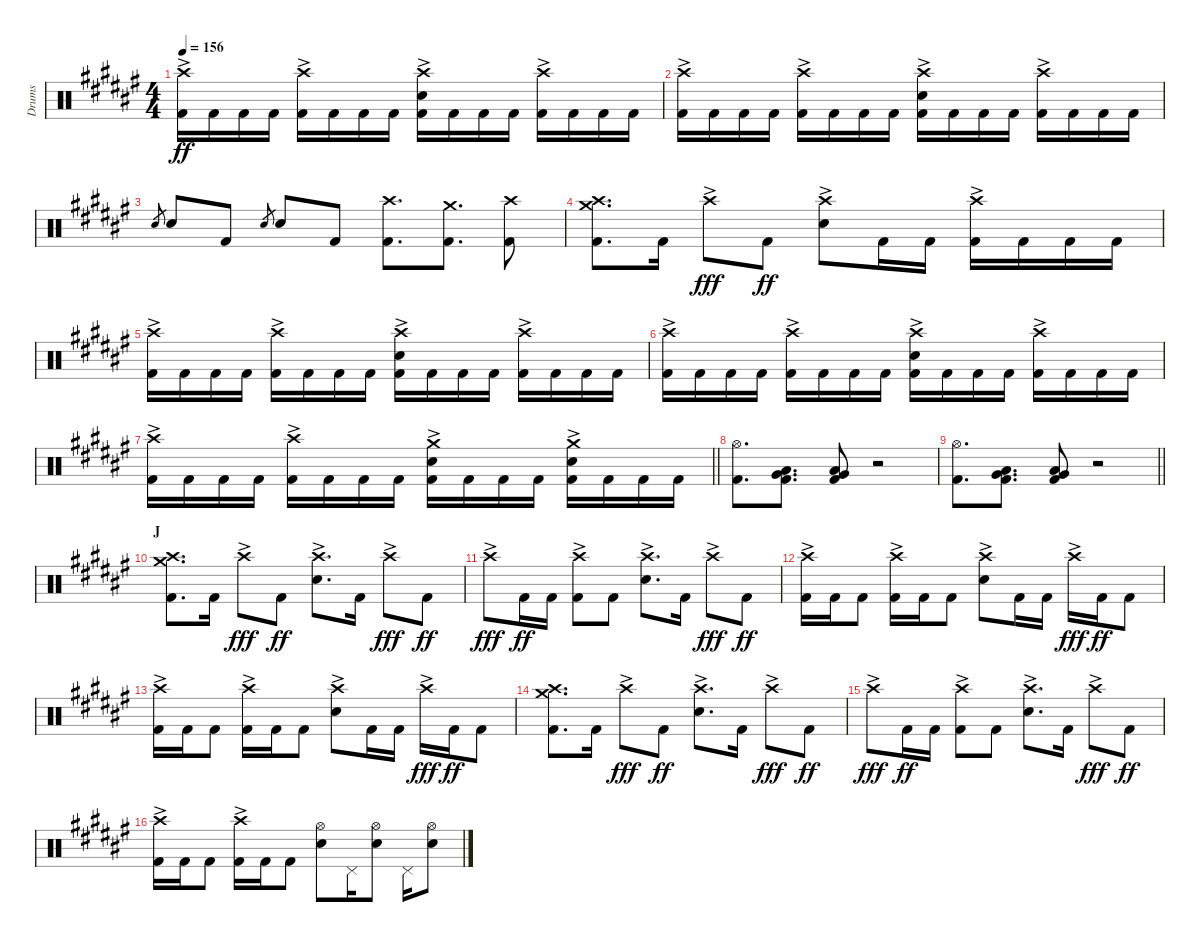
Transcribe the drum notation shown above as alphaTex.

\track ("Drums" "Drums") {instrument percussion}
\staff {score}
\articulation defaults
\ts (4 4)
\tempo 156
\clef neutral
\ks f#
("Crash high (hit)"{ac} "Kick (hit) 2").16{dy ff} "Kick (hit) 2".16 "Kick (hit) 2".16 "Kick (hit) 2".16 ("Crash high (hit)"{ac} "Kick (hit) 2").16 "Kick (hit) 2".16 "Kick (hit) 2".16 "Kick (hit) 2".16 ("Crash high (hit)"{ac} "Electric Snare (hit)" "Kick (hit) 2").16 "Kick (hit) 2".16 "Kick (hit) 2".16 "Kick (hit) 2".16 ("Crash high (hit)"{ac} "Kick (hit) 2").16 "Kick (hit) 2".16 "Kick (hit) 2".16 "Kick (hit) 2".16 |
("Crash high (hit)"{ac} "Kick (hit) 2").16 "Kick (hit) 2".16 "Kick (hit) 2".16 "Kick (hit) 2".16 ("Crash high (hit)"{ac} "Kick (hit) 2").16 "Kick (hit) 2".16 "Kick (hit) 2".16 "Kick (hit) 2".16 ("Crash high (hit)"{ac} "Electric Snare (hit)" "Kick (hit) 2").16 "Kick (hit) 2".16 "Kick (hit) 2".16 "Kick (hit) 2".16 ("Crash high (hit)"{ac} "Kick (hit) 2").16 "Kick (hit) 2".16 "Kick (hit) 2".16 "Kick (hit) 2".16 |
"Electric Snare (hit)".8{gr} "Electric Snare (hit)".8 "Kick (hit) 2".8 "Electric Snare (hit)".8{gr} "Electric Snare (hit)".8 "Kick (hit) 2".8 ("Crash high (hit)" "Kick (hit) 2").8{d} ("Crash medium (hit)" "Kick (hit) 2").8{d} ("Crash high (hit)" "Kick (hit) 2").8 |
("Crash medium (hit)" "Crash high (hit)" "Kick (hit) 2").8{d} "Kick (hit) 2".16 "Crash high (hit)"{ac}.8{dy fff} "Kick (hit) 2".8{dy ff} ("Crash high (hit)"{ac} "Electric Snare (hit)").8 "Kick (hit) 2".16 "Kick (hit) 2".16 ("Crash high (hit)"{ac} "Kick (hit) 2").16 "Kick (hit) 2".16 "Kick (hit) 2".16 "Kick (hit) 2".16 |
("Crash high (hit)"{ac} "Kick (hit) 2").16 "Kick (hit) 2".16 "Kick (hit) 2".16 "Kick (hit) 2".16 ("Crash high (hit)"{ac} "Kick (hit) 2").16 "Kick (hit) 2".16 "Kick (hit) 2".16 "Kick (hit) 2".16 ("Crash high (hit)"{ac} "Electric Snare (hit)" "Kick (hit) 2").16 "Kick (hit) 2".16 "Kick (hit) 2".16 "Kick (hit) 2".16 ("Crash high (hit)"{ac} "Kick (hit) 2").16 "Kick (hit) 2".16 "Kick (hit) 2".16 "Kick (hit) 2".16 |
("Crash high (hit)"{ac} "Kick (hit) 2").16 "Kick (hit) 2".16 "Kick (hit) 2".16 "Kick (hit) 2".16 ("Crash high (hit)"{ac} "Kick (hit) 2").16 "Kick (hit) 2".16 "Kick (hit) 2".16 "Kick (hit) 2".16 ("Crash high (hit)"{ac} "Electric Snare (hit)" "Kick (hit) 2").16 "Kick (hit) 2".16 "Kick (hit) 2".16 "Kick (hit) 2".16 ("Crash high (hit)"{ac} "Kick (hit) 2").16 "Kick (hit) 2".16 "Kick (hit) 2".16 "Kick (hit) 2".16 |
\barLineRight lightlight
("Crash high (hit)"{ac} "Kick (hit) 2").16 "Kick (hit) 2".16 "Kick (hit) 2".16 "Kick (hit) 2".16 ("Crash high (hit)"{ac} "Kick (hit) 2").16 "Kick (hit) 2".16 "Kick (hit) 2".16 "Kick (hit) 2".16 ("Crash medium (hit)"{ac} "Electric Snare (hit)" "Kick (hit) 2").16 "Kick (hit) 2".16 "Kick (hit) 2".16 "Kick (hit) 2".16 ("Crash medium (hit)"{ac} "Electric Snare (hit)" "Kick (hit) 2").16 "Kick (hit) 2".16 "Kick (hit) 2".16 "Kick (hit) 2".16 |
\section ("" "")
("Hi-Hat (open)" "Kick (hit) 2").8{d} ("Low Tom (hit)" "Very Low Tom (hit)" "Kick (hit) 2").8{d} ("Very Low Tom (hit)" "Low Floor Tom (hit)" "Kick (hit) 2").8 r.2 |
\barLineRight lightlight
("Hi-Hat (open)" "Kick (hit) 2").8{d} ("Low Tom (hit)" "Very Low Tom (hit)" "Kick (hit) 2").8{d} ("Very Low Tom (hit)" "Low Floor Tom (hit)" "Kick (hit) 2").8 r.2 |
\section ("" "J")
("Crash medium (hit)" "Crash high (hit)" "Kick (hit) 2").8{d} "Kick (hit) 2".16 "Crash high (hit)"{ac}.8{dy fff} "Kick (hit) 2".8{dy ff} ("Crash high (hit)"{ac} "Electric Snare (hit)").8{d} "Kick (hit) 2".16 "Crash high (hit)"{ac}.8{dy fff} "Kick (hit) 2".8{dy ff} |
"Crash high (hit)"{ac}.8{dy fff} "Kick (hit) 2".16{dy ff} "Kick (hit) 2".16 ("Crash high (hit)"{ac} "Kick (hit) 2").8 "Kick (hit) 2".8 ("Crash high (hit)"{ac} "Electric Snare (hit)").8{d} "Kick (hit) 2".16 "Crash high (hit)"{ac}.8{dy fff} "Kick (hit) 2".8{dy ff} |
("Crash high (hit)"{ac} "Kick (hit) 2").16 "Kick (hit) 2".16 "Kick (hit) 2".8 ("Crash high (hit)"{ac} "Kick (hit) 2").16 "Kick (hit) 2".16 "Kick (hit) 2".8 ("Crash high (hit)"{ac} "Electric Snare (hit)").8 "Kick (hit) 2".16 "Kick (hit) 2".16 "Crash high (hit)"{ac}.16{dy fff} "Kick (hit) 2".16{dy ff} "Kick (hit) 2".8 |
("Crash high (hit)"{ac} "Kick (hit) 2").16 "Kick (hit) 2".16 "Kick (hit) 2".8 ("Crash high (hit)"{ac} "Kick (hit) 2").16 "Kick (hit) 2".16 "Kick (hit) 2".8 ("Crash high (hit)"{ac} "Electric Snare (hit)").8 "Kick (hit) 2".16 "Kick (hit) 2".16 "Crash high (hit)"{ac}.16{dy fff} "Kick (hit) 2".16{dy ff} "Kick (hit) 2".8 |
("Crash medium (hit)" "Crash high (hit)" "Kick (hit) 2").8{d} "Kick (hit) 2".16 "Crash high (hit)"{ac}.8{dy fff} "Kick (hit) 2".8{dy ff} ("Crash high (hit)"{ac} "Electric Snare (hit)").8{d} "Kick (hit) 2".16 "Crash high (hit)"{ac}.8{dy fff} "Kick (hit) 2".8{dy ff} |
"Crash high (hit)"{ac}.8{dy fff} "Kick (hit) 2".16{dy ff} "Kick (hit) 2".16 ("Crash high (hit)"{ac} "Kick (hit) 2").8 "Kick (hit) 2".8 ("Crash high (hit)"{ac} "Electric Snare (hit)").8{d} "Kick (hit) 2".16 "Crash high (hit)"{ac}.8{dy fff} "Kick (hit) 2".8{dy ff} |
("Crash high (hit)"{ac} "Kick (hit) 2").16 "Kick (hit) 2".16 "Kick (hit) 2".8 ("Crash high (hit)"{ac} "Kick (hit) 2").16 "Kick (hit) 2".16 "Kick (hit) 2".8 ("Hi-Hat (open)" "Electric Snare (hit)").8 "Pedal Hi-Hat (hit)".16 ("Hi-Hat (open)" "Electric Snare (hit)").8 "Pedal Hi-Hat (hit)".16 ("Hi-Hat (open)" "Electric Snare (hit)").8
